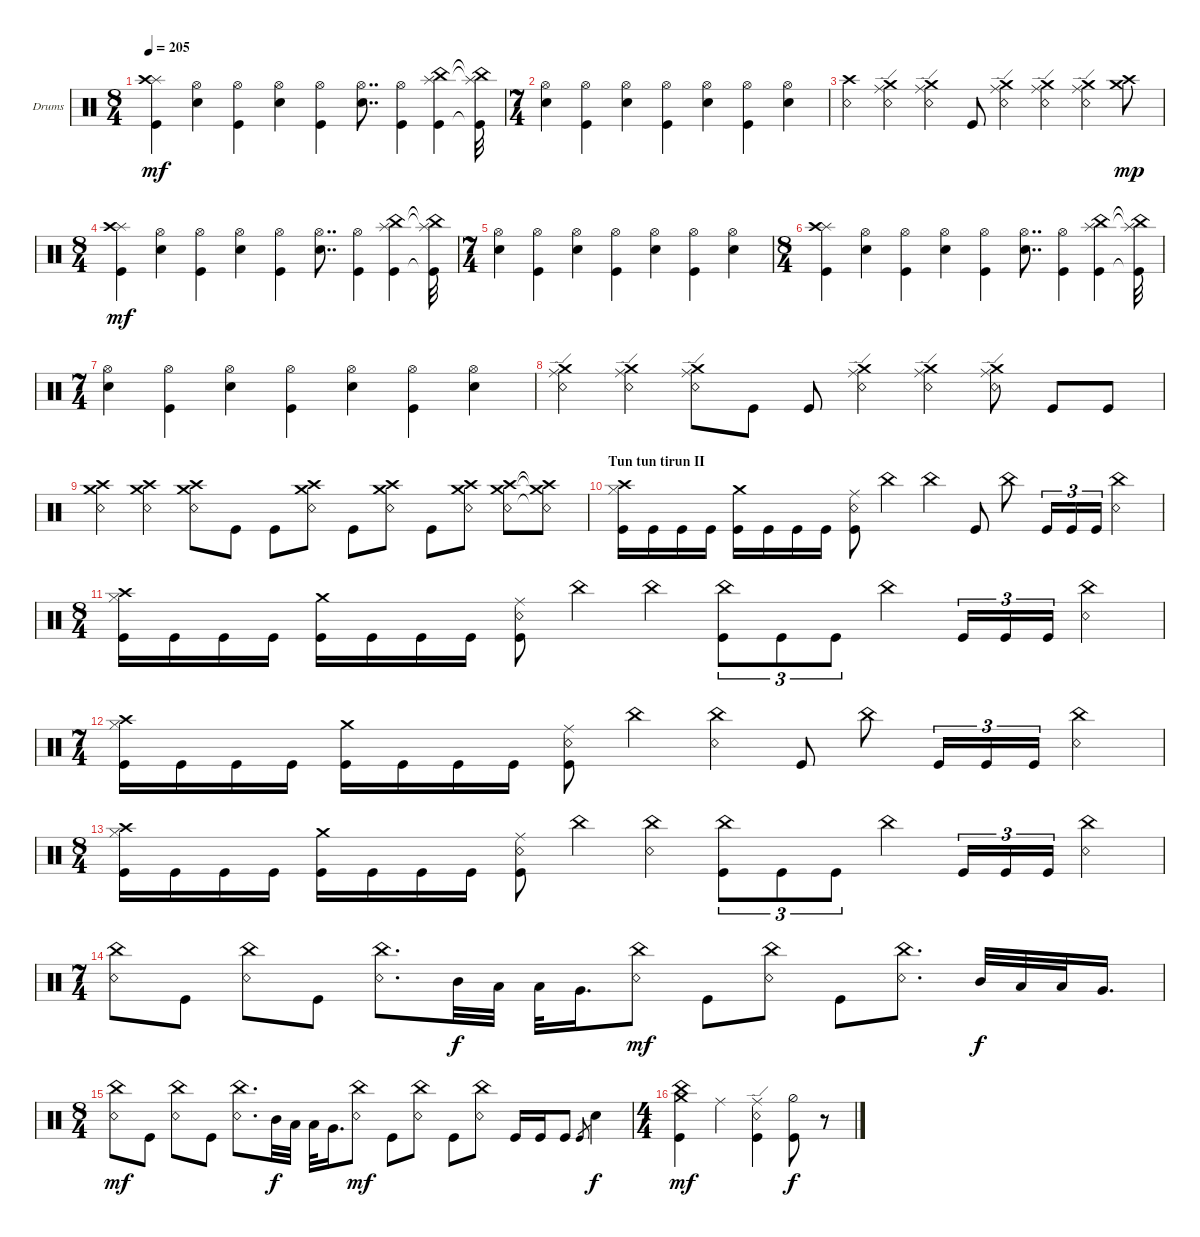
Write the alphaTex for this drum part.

\defaultSystemsLayout 4
\bracketExtendMode groupsimilarinstruments
\firstSystemTrackNameOrientation horizontal
\otherSystemsTrackNameOrientation horizontal
\track ("GordiBuena" "Drums") {instrument percussion}
\staff {score}
\articulation defaults
\ts (8 4)
\tempo 205
\clef neutral
\ks c
("Kick (hit)" "Splash (hit)" "Crash high (hit)").4{dy mf} ("Snare (hit) 2" "Hi-Hat (open)").4 ("Kick (hit)" "Hi-Hat (open)").4 ("Snare (hit) 2" "Hi-Hat (open)").4 ("Kick (hit)" "Hi-Hat (open)").4 ("Snare (hit) 2" "Hi-Hat (open)").8{dd} ("Kick (hit)" "Hi-Hat (open)").4 ("Kick (hit)" "China (hit)" "Splash (hit)").4 ("Kick (hit)"{t} "China (hit)"{t} "Splash (hit)"{t}).32 |
\ts (7 4)
("Snare (hit) 2" "Hi-Hat (open)").4 ("Kick (hit)" "Hi-Hat (open)").4 ("Snare (hit) 2" "Hi-Hat (open)").4 ("Kick (hit)" "Hi-Hat (open)").4 ("Snare (hit) 2" "Hi-Hat (open)").4 ("Kick (hit)" "Hi-Hat (open)").4 ("Snare (hit) 2" "Hi-Hat (open)").4 |
("Snare (rim shot)" "Crash high (hit)").4 ("Snare (rim shot)" "Crash medium (hit)" "Ride (edge)").4 ("Snare (rim shot)" "Crash medium (hit)" "Ride (edge)").4 "Kick (hit)".8 ("Snare (rim shot)" "Crash medium (hit)" "Ride (edge)").4 ("Snare (rim shot)" "Crash medium (hit)" "Ride (edge)").4 ("Snare (rim shot)" "Crash medium (hit)" "Ride (edge)").4 ("Crash medium (hit)" "Crash high (hit)").8{dy mp} |
\ts (8 4)
("Kick (hit)" "Splash (hit)" "Crash high (hit)").4{dy mf} ("Snare (hit) 2" "Hi-Hat (open)").4 ("Kick (hit)" "Hi-Hat (open)").4 ("Snare (hit) 2" "Hi-Hat (open)").4 ("Kick (hit)" "Hi-Hat (open)").4 ("Snare (hit) 2" "Hi-Hat (open)").8{dd} ("Kick (hit)" "Hi-Hat (open)").4 ("Kick (hit)" "China (hit)" "Splash (hit)").4 ("Kick (hit)"{t} "China (hit)"{t} "Splash (hit)"{t}).32 |
\ts (7 4)
("Snare (hit) 2" "Hi-Hat (open)").4 ("Kick (hit)" "Hi-Hat (open)").4 ("Snare (hit) 2" "Hi-Hat (open)").4 ("Kick (hit)" "Hi-Hat (open)").4 ("Snare (hit) 2" "Hi-Hat (open)").4 ("Kick (hit)" "Hi-Hat (open)").4 ("Snare (hit) 2" "Hi-Hat (open)").4 |
\ts (8 4)
("Kick (hit)" "Splash (hit)" "Crash high (hit)").4 ("Snare (hit) 2" "Hi-Hat (open)").4 ("Kick (hit)" "Hi-Hat (open)").4 ("Snare (hit) 2" "Hi-Hat (open)").4 ("Kick (hit)" "Hi-Hat (open)").4 ("Snare (hit) 2" "Hi-Hat (open)").8{dd} ("Kick (hit)" "Hi-Hat (open)").4 ("Kick (hit)" "China (hit)" "Splash (hit)").4 ("Kick (hit)"{t} "China (hit)"{t} "Splash (hit)"{t}).32 |
\ts (7 4)
("Snare (hit) 2" "Hi-Hat (open)").4 ("Kick (hit)" "Hi-Hat (open)").4 ("Snare (hit) 2" "Hi-Hat (open)").4 ("Kick (hit)" "Hi-Hat (open)").4 ("Snare (hit) 2" "Hi-Hat (open)").4 ("Kick (hit)" "Hi-Hat (open)").4 ("Snare (hit) 2" "Hi-Hat (open)").4 |
("Snare (rim shot)" "Crash medium (hit)" "Ride (edge)").4 ("Snare (rim shot)" "Crash medium (hit)" "Ride (edge)").4 ("Snare (rim shot)" "Crash medium (hit)" "Ride (edge)").8 "Kick (hit)".8 "Kick (hit)".8 ("Snare (rim shot)" "Crash medium (hit)" "Ride (edge)").4 ("Snare (rim shot)" "Crash medium (hit)" "Ride (edge)").4 ("Snare (rim shot)" "Crash medium (hit)" "Ride (edge)").8 "Kick (hit)".8 "Kick (hit)".8 |
("Snare (rim shot)" "Crash medium (hit)" "Crash high (hit)").4 ("Snare (rim shot)" "Crash medium (hit)" "Crash high (hit)").4 ("Snare (rim shot)" "Crash medium (hit)" "Crash high (hit)").8 "Kick (hit)".8 "Kick (hit)".8 ("Snare (rim shot)" "Crash medium (hit)" "Crash high (hit)").8 "Kick (hit)".8 ("Snare (rim shot)" "Crash medium (hit)" "Crash high (hit)").8 "Kick (hit)".8 ("Snare (rim shot)" "Crash medium (hit)" "Crash high (hit)").8 ("Snare (rim shot)" "Crash medium (hit)" "Crash high (hit)").8 ("Snare (rim shot)"{t} "Crash medium (hit)"{t} "Crash high (hit)"{t}).8 |
\section ("" "Tun tun tirun II")
("Kick (hit)" "Crash high (hit)" "Hi-Hat (closed)").16 "Kick (hit)".16 "Kick (hit)".16 "Kick (hit)".16 ("Kick (hit)" "Crash medium (hit)").16 "Kick (hit)".16 "Kick (hit)".16 "Kick (hit)".16 ("Kick (hit)" "Ride (middle)" "Snare (rim shot)").8 "China (hit)".4 "China (hit)".4 "Kick (hit)".8 "China (hit)".8 "Kick (hit)".16{tu (3 2)} "Kick (hit)".16{tu (3 2)} "Kick (hit)".16{tu (3 2)} ("China (hit)" "Snare (rim shot)").4 |
\ts (8 4)
("Kick (hit)" "Crash high (hit)" "Hi-Hat (closed)").16 "Kick (hit)".16 "Kick (hit)".16 "Kick (hit)".16 ("Kick (hit)" "Crash medium (hit)").16 "Kick (hit)".16 "Kick (hit)".16 "Kick (hit)".16 ("Kick (hit)" "Ride (middle)" "Snare (rim shot)").8 "China (hit)".4 "China (hit)".4 ("Kick (hit)" "China (hit)").8{tu (3 2)} "Kick (hit)".8{tu (3 2)} "Kick (hit)".8{tu (3 2)} "China (hit)".4 "Kick (hit)".16{tu (3 2)} "Kick (hit)".16{tu (3 2)} "Kick (hit)".16{tu (3 2)} ("China (hit)" "Snare (rim shot)").4 |
\ts (7 4)
("Kick (hit)" "Crash high (hit)" "Hi-Hat (closed)").16 "Kick (hit)".16 "Kick (hit)".16 "Kick (hit)".16 ("Kick (hit)" "Crash medium (hit)").16 "Kick (hit)".16 "Kick (hit)".16 "Kick (hit)".16 ("Kick (hit)" "Ride (middle)" "Snare (rim shot)").8 "China (hit)".4 ("China (hit)" "Snare (rim shot)").4 "Kick (hit)".8 "China (hit)".8 "Kick (hit)".16{tu (3 2)} "Kick (hit)".16{tu (3 2)} "Kick (hit)".16{tu (3 2)} ("China (hit)" "Snare (rim shot)").4 |
\ts (8 4)
("Kick (hit)" "Crash high (hit)" "Hi-Hat (closed)").16 "Kick (hit)".16 "Kick (hit)".16 "Kick (hit)".16 ("Kick (hit)" "Crash medium (hit)").16 "Kick (hit)".16 "Kick (hit)".16 "Kick (hit)".16 ("Kick (hit)" "Ride (middle)" "Snare (rim shot)").8 "China (hit)".4 ("China (hit)" "Snare (rim shot)").4 ("Kick (hit)" "China (hit)").8{tu (3 2)} "Kick (hit)".8{tu (3 2)} "Kick (hit)".8{tu (3 2)} "China (hit)".4 "Kick (hit)".16{tu (3 2)} "Kick (hit)".16{tu (3 2)} "Kick (hit)".16{tu (3 2)} ("China (hit)" "Snare (rim shot)").4 |
\ts (7 4)
("Snare (rim shot)" "China (hit)").8 "Kick (hit)".8 ("Snare (rim shot)" "China (hit)").8 "Kick (hit)".8 ("Snare (rim shot)" "China (hit)").8{d} "Mid Tom (hit)".32{dy f} "Low Tom (hit)".32 "Low Tom (hit)".32 "Very Low Tom (hit)".16{d} ("Snare (rim shot)" "China (hit)").8{dy mf} "Kick (hit)".8 ("Snare (rim shot)" "China (hit)").8 "Kick (hit)".8 ("Snare (rim shot)" "China (hit)").8{d} "Mid Tom (hit)".32{dy f} "Low Tom (hit)".32 "Low Tom (hit)".32 "Very Low Tom (hit)".16{d} |
\ts (8 4)
("Snare (rim shot)" "China (hit)").8{dy mf} "Kick (hit)".8 ("Snare (rim shot)" "China (hit)").8 "Kick (hit)".8 ("Snare (rim shot)" "China (hit)").8{d} "Mid Tom (hit)".32{dy f} "Low Tom (hit)".32 "Low Tom (hit)".32 "Very Low Tom (hit)".16{d} ("Snare (rim shot)" "China (hit)").8{dy mf} "Kick (hit)".8 ("Snare (rim shot)" "China (hit)").8 "Kick (hit)".8 ("Snare (rim shot)" "China (hit)").8 "Kick (hit)".16 "Kick (hit)".16 "Kick (hit)".8 "Kick (hit)".8{gr} "Snare (hit) 2".4{dy f} |
\ts (4 4)
("Kick (hit)" "Crash medium (hit)" "China (hit)").4{dy mf} "Ride (middle)".4 ("Kick (hit)" "Snare (rim shot)" "Ride (edge)").4 ("Hi-Hat (half)" "Kick (hit)").8{dy f} r.8
